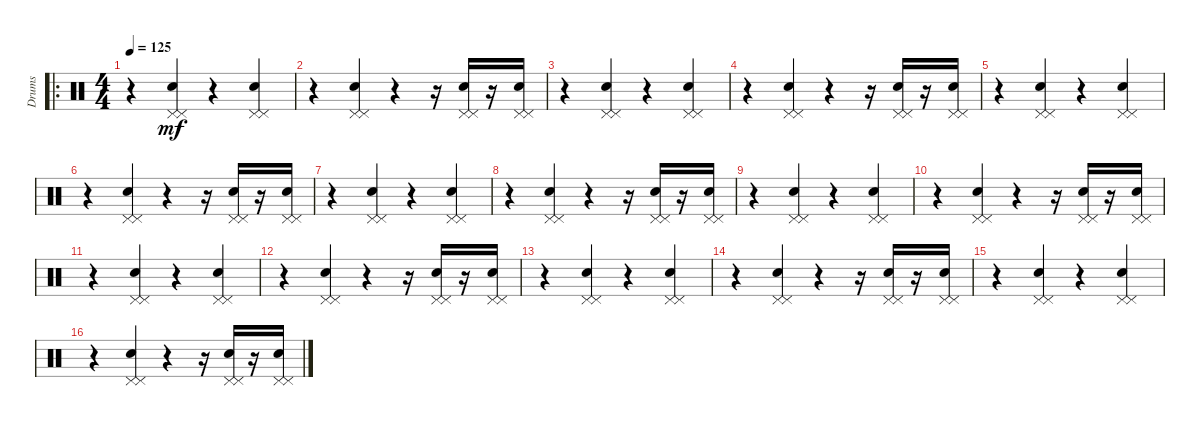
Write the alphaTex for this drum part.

\track ("Drums" "Drums") {instrument percussion}
\staff {score}
\articulation defaults
\ro
\ts (4 4)
\tempo 125
\clef neutral
\ks c
r.4{dy mf} ("Pedal Hi-Hat (hit)" "Electric Snare (hit)" "Pedal Hi-Hat (hit)").4 r.4 ("Pedal Hi-Hat (hit)" "Electric Snare (hit)" "Pedal Hi-Hat (hit)").4 |
r.4 ("Pedal Hi-Hat (hit)" "Electric Snare (hit)" "Pedal Hi-Hat (hit)").4 r.4 r.16 ("Pedal Hi-Hat (hit)" "Electric Snare (hit)" "Pedal Hi-Hat (hit)").16 r.16 ("Pedal Hi-Hat (hit)" "Electric Snare (hit)" "Pedal Hi-Hat (hit)").16 |
r.4 ("Pedal Hi-Hat (hit)" "Electric Snare (hit)" "Pedal Hi-Hat (hit)").4 r.4 ("Pedal Hi-Hat (hit)" "Electric Snare (hit)" "Pedal Hi-Hat (hit)").4 |
r.4 ("Pedal Hi-Hat (hit)" "Electric Snare (hit)" "Pedal Hi-Hat (hit)").4 r.4 r.16 ("Pedal Hi-Hat (hit)" "Electric Snare (hit)" "Pedal Hi-Hat (hit)").16 r.16 ("Pedal Hi-Hat (hit)" "Electric Snare (hit)" "Pedal Hi-Hat (hit)").16 |
r.4 ("Pedal Hi-Hat (hit)" "Electric Snare (hit)" "Pedal Hi-Hat (hit)").4 r.4 ("Pedal Hi-Hat (hit)" "Electric Snare (hit)" "Pedal Hi-Hat (hit)").4 |
r.4 ("Pedal Hi-Hat (hit)" "Electric Snare (hit)" "Pedal Hi-Hat (hit)").4 r.4 r.16 ("Pedal Hi-Hat (hit)" "Electric Snare (hit)" "Pedal Hi-Hat (hit)").16 r.16 ("Pedal Hi-Hat (hit)" "Electric Snare (hit)" "Pedal Hi-Hat (hit)").16 |
r.4 ("Pedal Hi-Hat (hit)" "Electric Snare (hit)" "Pedal Hi-Hat (hit)").4 r.4 ("Pedal Hi-Hat (hit)" "Electric Snare (hit)" "Pedal Hi-Hat (hit)").4 |
r.4 ("Pedal Hi-Hat (hit)" "Electric Snare (hit)" "Pedal Hi-Hat (hit)").4 r.4 r.16 ("Pedal Hi-Hat (hit)" "Electric Snare (hit)" "Pedal Hi-Hat (hit)").16 r.16 ("Pedal Hi-Hat (hit)" "Electric Snare (hit)" "Pedal Hi-Hat (hit)").16 |
r.4 ("Pedal Hi-Hat (hit)" "Electric Snare (hit)" "Pedal Hi-Hat (hit)").4 r.4 ("Pedal Hi-Hat (hit)" "Electric Snare (hit)" "Pedal Hi-Hat (hit)").4 |
r.4 ("Pedal Hi-Hat (hit)" "Electric Snare (hit)" "Pedal Hi-Hat (hit)").4 r.4 r.16 ("Pedal Hi-Hat (hit)" "Electric Snare (hit)" "Pedal Hi-Hat (hit)").16 r.16 ("Pedal Hi-Hat (hit)" "Electric Snare (hit)" "Pedal Hi-Hat (hit)").16 |
r.4 ("Pedal Hi-Hat (hit)" "Electric Snare (hit)" "Pedal Hi-Hat (hit)").4 r.4 ("Pedal Hi-Hat (hit)" "Electric Snare (hit)" "Pedal Hi-Hat (hit)").4 |
r.4 ("Pedal Hi-Hat (hit)" "Electric Snare (hit)" "Pedal Hi-Hat (hit)").4 r.4 r.16 ("Pedal Hi-Hat (hit)" "Electric Snare (hit)" "Pedal Hi-Hat (hit)").16 r.16 ("Pedal Hi-Hat (hit)" "Electric Snare (hit)" "Pedal Hi-Hat (hit)").16 |
r.4 ("Pedal Hi-Hat (hit)" "Electric Snare (hit)" "Pedal Hi-Hat (hit)").4 r.4 ("Pedal Hi-Hat (hit)" "Electric Snare (hit)" "Pedal Hi-Hat (hit)").4 |
r.4 ("Pedal Hi-Hat (hit)" "Electric Snare (hit)" "Pedal Hi-Hat (hit)").4 r.4 r.16 ("Pedal Hi-Hat (hit)" "Electric Snare (hit)" "Pedal Hi-Hat (hit)").16 r.16 ("Pedal Hi-Hat (hit)" "Electric Snare (hit)" "Pedal Hi-Hat (hit)").16 |
r.4 ("Pedal Hi-Hat (hit)" "Electric Snare (hit)" "Pedal Hi-Hat (hit)").4 r.4 ("Pedal Hi-Hat (hit)" "Electric Snare (hit)" "Pedal Hi-Hat (hit)").4 |
r.4 ("Pedal Hi-Hat (hit)" "Electric Snare (hit)" "Pedal Hi-Hat (hit)").4 r.4 r.16 ("Pedal Hi-Hat (hit)" "Electric Snare (hit)" "Pedal Hi-Hat (hit)").16 r.16 ("Pedal Hi-Hat (hit)" "Electric Snare (hit)" "Pedal Hi-Hat (hit)").16
